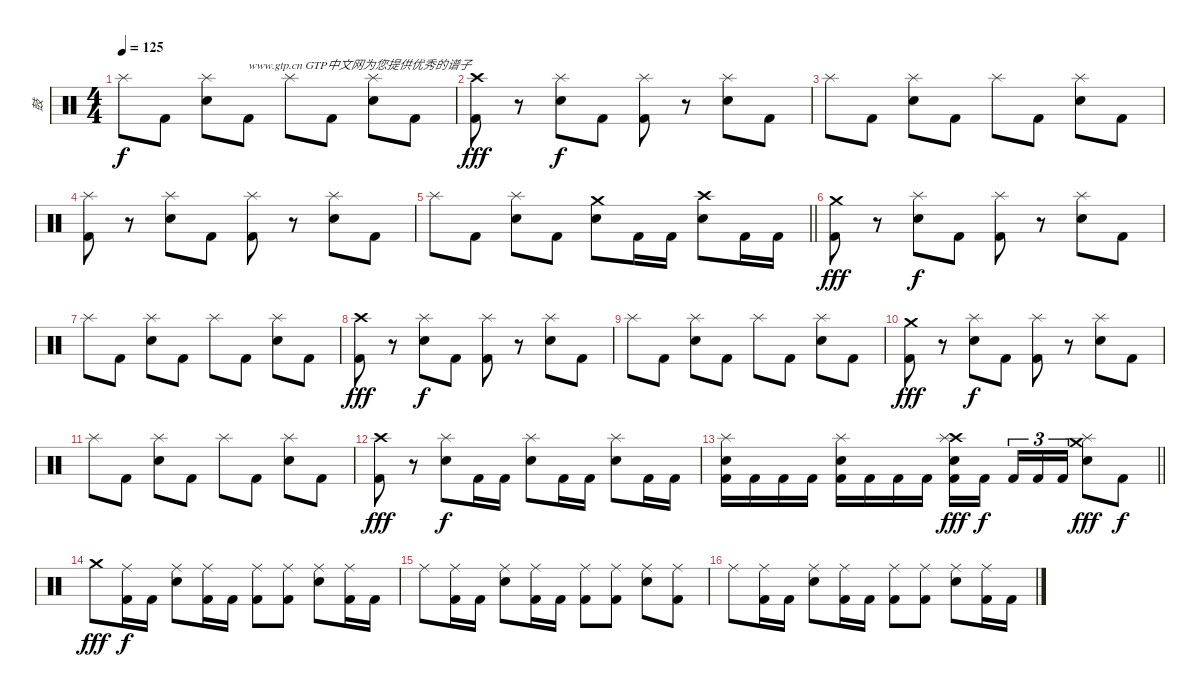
\track ("鼓" "鼓") {instrument percussion}
\staff {score}
\articulation defaults
\ts (4 4)
\tempo 125
\clef neutral
\ks c "Splash (hit)".8{dy f} "Kick (hit) 2".8
("Splash (hit)" "Electric Snare (hit)").8 "Kick (hit) 2".8{txt "www.gtp.cn GTP中文网为您提供优秀的谱子"} "Splash (hit)".8 "Kick (hit) 2".8 ("Splash (hit)" "Electric Snare (hit)").8 "Kick (hit) 2".8 |
("Crash high (hit)" "Kick (hit) 2").8{dy fff} r.8 ("Splash (hit)" "Electric Snare (hit)").8{dy f} "Kick (hit) 2".8 ("Splash (hit)" "Kick (hit) 2").8 r.8 ("Splash (hit)" "Electric Snare (hit)").8 "Kick (hit) 2".8 |
"Splash (hit)".8 "Kick (hit) 2".8 ("Splash (hit)" "Electric Snare (hit)").8 "Kick (hit) 2".8 "Splash (hit)".8 "Kick (hit) 2".8 ("Splash (hit)" "Electric Snare (hit)").8 "Kick (hit) 2".8 |
("Splash (hit)" "Kick (hit) 2").8 r.8 ("Splash (hit)" "Electric Snare (hit)").8 "Kick (hit) 2".8 ("Splash (hit)" "Kick (hit) 2").8 r.8 ("Splash (hit)" "Electric Snare (hit)").8 "Kick (hit) 2".8 |
\barLineRight lightlight "Splash (hit)".8 "Kick (hit) 2".8
("Splash (hit)" "Electric Snare (hit)").8 "Kick (hit) 2".8 ("Crash medium (hit)" "Electric Snare (hit)").8 "Kick (hit) 2".16 "Kick (hit) 2".16 ("Crash high (hit)" "Electric Snare (hit)").8 "Kick (hit) 2".16 "Kick (hit) 2".16 |
("Crash medium (hit)" "Kick (hit) 2").8{dy fff} r.8 ("Splash (hit)" "Electric Snare (hit)").8{dy f} "Kick (hit) 2".8 ("Splash (hit)" "Kick (hit) 2").8 r.8 ("Splash (hit)" "Electric Snare (hit)").8 "Kick (hit) 2".8 |
"Splash (hit)".8 "Kick (hit) 2".8 ("Splash (hit)" "Electric Snare (hit)").8 "Kick (hit) 2".8 "Splash (hit)".8 "Kick (hit) 2".8 ("Splash (hit)" "Electric Snare (hit)").8 "Kick (hit) 2".8 |
("Crash high (hit)" "Kick (hit) 2").8{dy fff} r.8 ("Splash (hit)" "Electric Snare (hit)").8{dy f} "Kick (hit) 2".8 ("Splash (hit)" "Kick (hit) 2").8 r.8 ("Splash (hit)" "Electric Snare (hit)").8 "Kick (hit) 2".8 |
"Splash (hit)".8 "Kick (hit) 2".8 ("Splash (hit)" "Electric Snare (hit)").8 "Kick (hit) 2".8 "Splash (hit)".8 "Kick (hit) 2".8 ("Splash (hit)" "Electric Snare (hit)").8 "Kick (hit) 2".8 |
("Crash medium (hit)" "Kick (hit) 2").8{dy fff} r.8 ("Splash (hit)" "Electric Snare (hit)").8{dy f} "Kick (hit) 2".8 ("Splash (hit)" "Kick (hit) 2").8 r.8 ("Splash (hit)" "Electric Snare (hit)").8 "Kick (hit) 2".8 |
"Splash (hit)".8 "Kick (hit) 2".8 ("Splash (hit)" "Electric Snare (hit)").8 "Kick (hit) 2".8 "Splash (hit)".8 "Kick (hit) 2".8 ("Splash (hit)" "Electric Snare (hit)").8 "Kick (hit) 2".8 |
("Crash high (hit)" "Kick (hit) 2").8{dy fff} r.8 ("Splash (hit)" "Electric Snare (hit)").8{dy f} "Kick (hit) 2".16 "Kick (hit) 2".16 ("Splash (hit)" "Electric Snare (hit)").8 "Kick (hit) 2".16 "Kick (hit) 2".16 ("Splash (hit)" "Electric Snare (hit)").8 "Kick (hit) 2".16 "Kick (hit) 2".16 |
\barLineRight lightlight
("Splash (hit)" "Electric Snare (hit)" "Kick (hit) 2").16 "Kick (hit) 2".16 "Kick (hit) 2".16 "Kick (hit) 2".16 ("Splash (hit)" "Electric Snare (hit)" "Kick (hit) 2").16 "Kick (hit) 2".16 "Kick (hit) 2".16 "Kick (hit) 2".16 ("Crash high (hit)" "Splash (hit)" "Electric Snare (hit)" "Kick (hit) 2").16{dy fff} "Kick (hit) 2".16{dy f beam splitsecondary} "Kick (hit) 2".16{tu (3 2)} "Kick (hit) 2".16{tu (3 2)} "Kick (hit) 2".16{tu (3 2)} ("Crash medium (hit)" "Splash (hit)" "Electric Snare (hit)").8{dy fff} "Kick (hit) 2".8{dy f} |
"Crash medium (hit)".8{dy fff} ("Ride (middle)" "Kick (hit) 2").16{dy f} "Kick (hit) 2".16 ("Ride (middle)" "Electric Snare (hit)").8 ("Ride (middle)" "Kick (hit) 2").16 "Kick (hit) 2".16 ("Ride (middle)" "Kick (hit) 2").8 ("Ride (middle)" "Kick (hit) 2").8 ("Ride (middle)" "Electric Snare (hit)").8 ("Ride (middle)" "Kick (hit) 2").16 "Kick (hit) 2".16 |
"Ride (middle)".8 ("Ride (middle)" "Kick (hit) 2").16 "Kick (hit) 2".16 ("Ride (middle)" "Electric Snare (hit)").8 ("Ride (middle)" "Kick (hit) 2").16 "Kick (hit) 2".16 ("Ride (middle)" "Kick (hit) 2").8 ("Ride (middle)" "Kick (hit) 2").8 ("Ride (middle)" "Electric Snare (hit)").8 ("Ride (middle)" "Kick (hit) 2").8 |
"Ride (middle)".8 ("Ride (middle)" "Kick (hit) 2").16 "Kick (hit) 2".16 ("Ride (middle)" "Electric Snare (hit)").8 ("Ride (middle)" "Kick (hit) 2").16 "Kick (hit) 2".16 ("Ride (middle)" "Kick (hit) 2").8 ("Ride (middle)" "Kick (hit) 2").8 ("Ride (middle)" "Electric Snare (hit)").8 ("Ride (middle)" "Kick (hit) 2").16 "Kick (hit) 2".16
